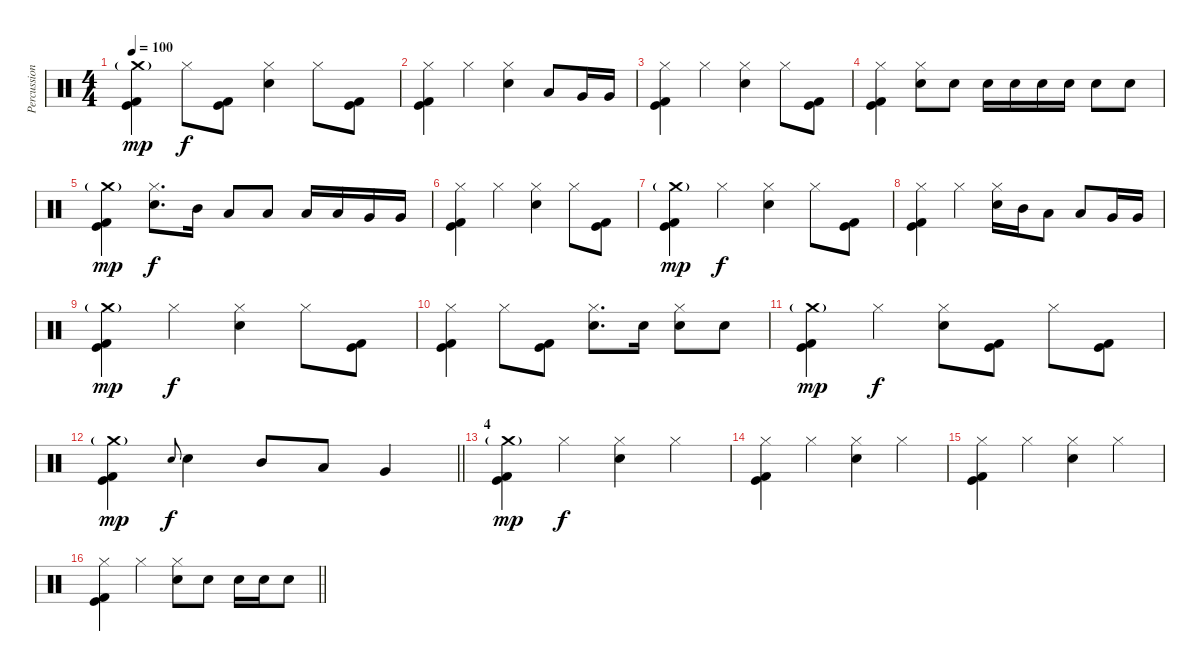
\track ("Percussion" "Percussion") {instrument percussion}
\staff {score}
\articulation defaults
\ts (4 4)
\tempo 100
\clef neutral
\ks c
("Crash medium (hit)"{g} "Kick (hit)" "Kick (hit) 2").4{dy mp} "Hi-Hat (closed)".8{dy f} ("Kick (hit)" "Kick (hit) 2").8 ("Hi-Hat (closed)" "Electric Snare (hit)").4 "Hi-Hat (closed)".8 ("Kick (hit)" "Kick (hit) 2").8 |
("Hi-Hat (closed)" "Kick (hit)" "Kick (hit) 2").4 "Hi-Hat (closed)".4 ("Hi-Hat (closed)" "Electric Snare (hit)").4 "Low Tom (hit)".8 "Very Low Tom (hit)".16 "Very Low Tom (hit)".16 |
("Hi-Hat (closed)" "Kick (hit)" "Kick (hit) 2").4 "Hi-Hat (closed)".4 ("Hi-Hat (closed)" "Electric Snare (hit)").4 "Hi-Hat (closed)".8 ("Kick (hit)" "Kick (hit) 2").8 |
("Hi-Hat (closed)" "Kick (hit)" "Kick (hit) 2").4 ("Hi-Hat (closed)" "Electric Snare (hit)").8 "Electric Snare (hit)".8 "Electric Snare (hit)".16 "Electric Snare (hit)".16 "Electric Snare (hit)".16 "Electric Snare (hit)".16 "Electric Snare (hit)".8 "Electric Snare (hit)".8 |
("Crash medium (hit)"{g} "Kick (hit)" "Kick (hit) 2").4{dy mp} ("Hi-Hat (closed)" "Electric Snare (hit)").8{d dy f} "Mid Tom (hit)".16 "Low Tom (hit)".8 "Low Tom (hit)".8 "Low Tom (hit)".16 "Low Tom (hit)".16 "Very Low Tom (hit)".16 "Very Low Tom (hit)".16 |
("Hi-Hat (closed)" "Kick (hit)" "Kick (hit) 2").4 "Hi-Hat (closed)".4 ("Hi-Hat (closed)" "Electric Snare (hit)").4 "Hi-Hat (closed)".8 ("Kick (hit)" "Kick (hit) 2").8 |
("Crash medium (hit)"{g} "Kick (hit)" "Kick (hit) 2").4{dy mp} "Hi-Hat (closed)".4{dy f} ("Hi-Hat (closed)" "Electric Snare (hit)").4 "Hi-Hat (closed)".8 ("Kick (hit)" "Kick (hit) 2").8 |
("Hi-Hat (closed)" "Kick (hit)" "Kick (hit) 2").4 "Hi-Hat (closed)".4 ("Hi-Hat (closed)" "Electric Snare (hit)").16 "Mid Tom (hit)".16 "Low Tom (hit)".8 "Low Tom (hit)".8 "Very Low Tom (hit)".16 "Very Low Tom (hit)".16 |
("Crash medium (hit)"{g} "Kick (hit)" "Kick (hit) 2").4{dy mp} "Hi-Hat (closed)".4{dy f} ("Hi-Hat (closed)" "Electric Snare (hit)").4 "Hi-Hat (closed)".8 ("Kick (hit)" "Kick (hit) 2").8 |
("Hi-Hat (closed)" "Kick (hit)" "Kick (hit) 2").4 "Hi-Hat (closed)".8 ("Kick (hit)" "Kick (hit) 2").8 ("Hi-Hat (closed)" "Electric Snare (hit)").8{d} "Electric Snare (hit)".16 ("Hi-Hat (closed)" "Electric Snare (hit)").8 "Electric Snare (hit)".8 |
("Crash medium (hit)"{g} "Kick (hit)" "Kick (hit) 2").4{dy mp} "Hi-Hat (closed)".4{dy f} ("Hi-Hat (closed)" "Electric Snare (hit)").8 ("Kick (hit)" "Kick (hit) 2").8 "Hi-Hat (closed)".8 ("Kick (hit)" "Kick (hit) 2").8 |
\barLineRight lightlight
("Crash medium (hit)"{g} "Kick (hit)" "Kick (hit) 2").4{dy mp} "Electric Snare (hit)".8{gr onbeat dy f} "Electric Snare (hit)".4 "Mid Tom (hit)".8 "Low Tom (hit)".8 "Very Low Tom (hit)".4 |
\section ("" "4")
("Crash medium (hit)"{g} "Kick (hit)" "Kick (hit) 2").4{dy mp} "Hi-Hat (closed)".4{dy f} ("Hi-Hat (closed)" "Electric Snare (hit)").4 "Hi-Hat (closed)".4 |
("Hi-Hat (closed)" "Kick (hit)" "Kick (hit) 2").4 "Hi-Hat (closed)".4 ("Hi-Hat (closed)" "Electric Snare (hit)").4 "Hi-Hat (closed)".4 |
("Hi-Hat (closed)" "Kick (hit)" "Kick (hit) 2").4 "Hi-Hat (closed)".4 ("Hi-Hat (closed)" "Electric Snare (hit)").4 "Hi-Hat (closed)".4 |
\barLineRight lightlight
("Hi-Hat (closed)" "Kick (hit)" "Kick (hit) 2").4 "Hi-Hat (closed)".4 ("Hi-Hat (closed)" "Electric Snare (hit)").8 "Electric Snare (hit)".8 "Electric Snare (hit)".16 "Electric Snare (hit)".16 "Electric Snare (hit)".8
